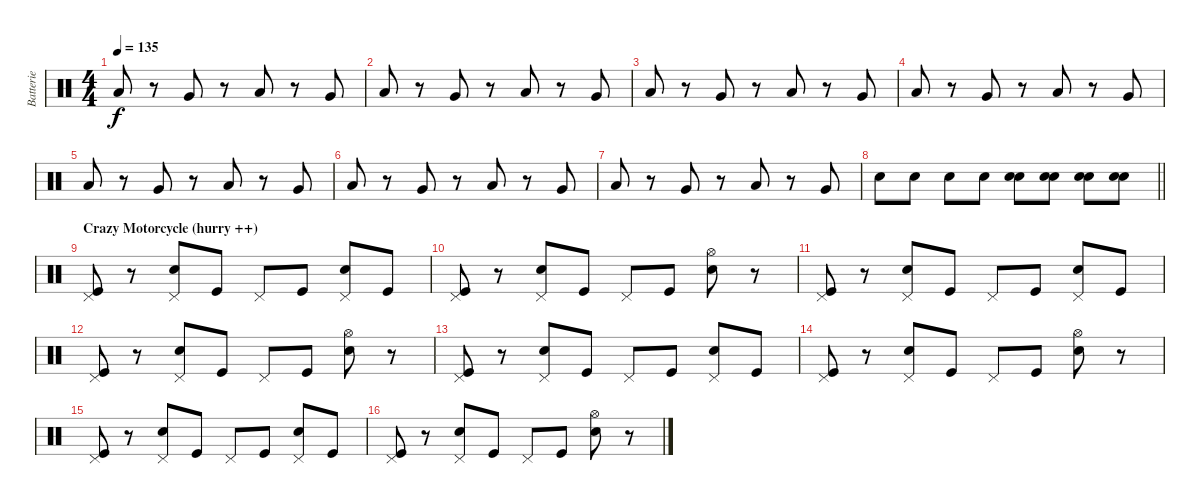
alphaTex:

\track ("Batterie" "Batterie") {instrument percussion}
\staff {score}
\articulation defaults
\ts (4 4)
\tempo 135
\clef neutral
\ks c "Low Tom (hit)".8{dy f}
r.8 "Very Low Tom (hit)".8 r.8 "Low Tom (hit)".8 r.8 "Very Low Tom (hit)".8 |
"Low Tom (hit)".8 r.8 "Very Low Tom (hit)".8 r.8 "Low Tom (hit)".8 r.8 "Very Low Tom (hit)".8 |
"Low Tom (hit)".8 r.8 "Very Low Tom (hit)".8 r.8 "Low Tom (hit)".8 r.8 "Very Low Tom (hit)".8 |
"Low Tom (hit)".8 r.8 "Very Low Tom (hit)".8 r.8 "Low Tom (hit)".8 r.8 "Very Low Tom (hit)".8 |
"Low Tom (hit)".8 r.8 "Very Low Tom (hit)".8 r.8 "Low Tom (hit)".8 r.8 "Very Low Tom (hit)".8 |
"Low Tom (hit)".8 r.8 "Very Low Tom (hit)".8 r.8 "Low Tom (hit)".8 r.8 "Very Low Tom (hit)".8 |
"Low Tom (hit)".8 r.8 "Very Low Tom (hit)".8 r.8 "Low Tom (hit)".8 r.8 "Very Low Tom (hit)".8 |
\barLineRight lightlight "Electric Snare (hit)".8 "Electric Snare (hit)".8 "Electric Snare (hit)".8 "Electric Snare (hit)".8
("Electric Snare (hit)" "Snare (hit) 2").8 ("Electric Snare (hit)" "Snare (hit) 2").8 ("Electric Snare (hit)" "Snare (hit) 2").8 ("Electric Snare (hit)" "Snare (hit) 2").8 |
\section ("" "Crazy Motorcycle (hurry ++)")
("Kick (hit)" "Pedal Hi-Hat (hit)").8 r.8 ("Electric Snare (hit)" "Pedal Hi-Hat (hit)").8 "Kick (hit)".8 "Pedal Hi-Hat (hit)".8 "Kick (hit)".8 ("Electric Snare (hit)" "Pedal Hi-Hat (hit)").8 "Kick (hit)".8 |
("Kick (hit)" "Pedal Hi-Hat (hit)").8 r.8 ("Electric Snare (hit)" "Pedal Hi-Hat (hit)").8 "Kick (hit)".8 "Pedal Hi-Hat (hit)".8 "Kick (hit)".8 ("Electric Snare (hit)" "Hi-Hat (open)").8 r.8 |
("Kick (hit)" "Pedal Hi-Hat (hit)").8 r.8 ("Electric Snare (hit)" "Pedal Hi-Hat (hit)").8 "Kick (hit)".8 "Pedal Hi-Hat (hit)".8 "Kick (hit)".8 ("Electric Snare (hit)" "Pedal Hi-Hat (hit)").8 "Kick (hit)".8 |
("Kick (hit)" "Pedal Hi-Hat (hit)").8 r.8 ("Electric Snare (hit)" "Pedal Hi-Hat (hit)").8 "Kick (hit)".8 "Pedal Hi-Hat (hit)".8 "Kick (hit)".8 ("Electric Snare (hit)" "Hi-Hat (open)").8 r.8 |
("Kick (hit)" "Pedal Hi-Hat (hit)").8 r.8 ("Electric Snare (hit)" "Pedal Hi-Hat (hit)").8 "Kick (hit)".8 "Pedal Hi-Hat (hit)".8 "Kick (hit)".8 ("Electric Snare (hit)" "Pedal Hi-Hat (hit)").8 "Kick (hit)".8 |
("Kick (hit)" "Pedal Hi-Hat (hit)").8 r.8 ("Electric Snare (hit)" "Pedal Hi-Hat (hit)").8 "Kick (hit)".8 "Pedal Hi-Hat (hit)".8 "Kick (hit)".8 ("Electric Snare (hit)" "Hi-Hat (open)").8 r.8 |
("Kick (hit)" "Pedal Hi-Hat (hit)").8 r.8 ("Electric Snare (hit)" "Pedal Hi-Hat (hit)").8 "Kick (hit)".8 "Pedal Hi-Hat (hit)".8 "Kick (hit)".8 ("Electric Snare (hit)" "Pedal Hi-Hat (hit)").8 "Kick (hit)".8 |
("Kick (hit)" "Pedal Hi-Hat (hit)").8 r.8 ("Electric Snare (hit)" "Pedal Hi-Hat (hit)").8 "Kick (hit)".8 "Pedal Hi-Hat (hit)".8 "Kick (hit)".8 ("Electric Snare (hit)" "Hi-Hat (open)").8 r.8
